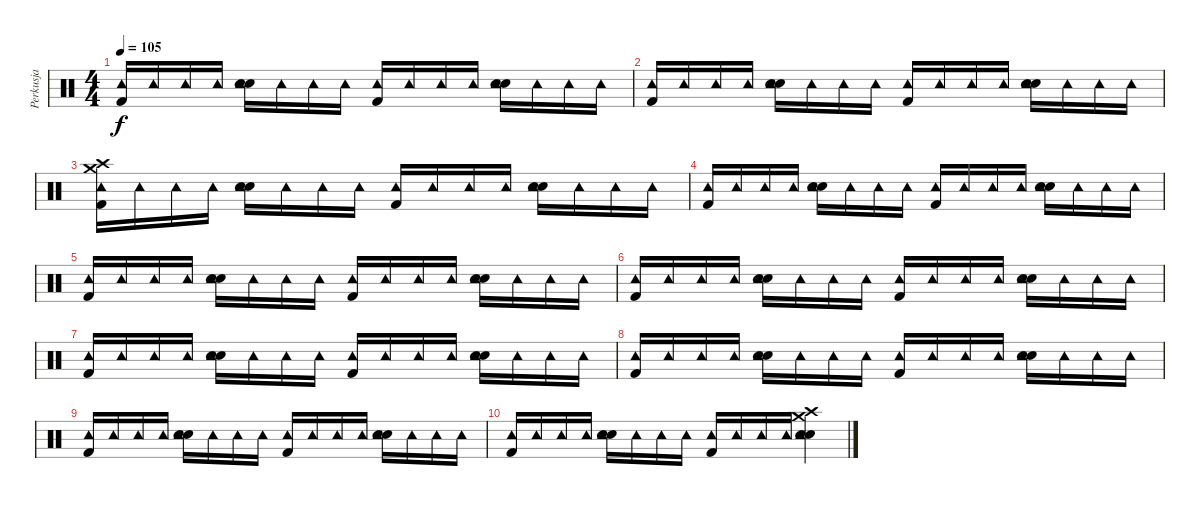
\track ("Perkusja" "Perkusja") {instrument percussion}
\staff {score}
\articulation defaults
\ts (4 4)
\tempo 105
\clef neutral
\ks c
("Kick (hit) 2" "Tambourine (hit)").16{dy f} "Tambourine (hit)".16 "Tambourine (hit)".16 "Tambourine (hit)".16 ("Electric Snare (hit)" "Snare (hit) 2" "Tambourine (hit)").16 "Tambourine (hit)".16 "Tambourine (hit)".16 "Tambourine (hit)".16 ("Kick (hit) 2" "Tambourine (hit)").16 "Tambourine (hit)".16 "Tambourine (hit)".16 "Tambourine (hit)".16 ("Electric Snare (hit)" "Snare (hit) 2" "Tambourine (hit)").16 "Tambourine (hit)".16 "Tambourine (hit)".16 "Tambourine (hit)".16 |
("Kick (hit) 2" "Tambourine (hit)").16 "Tambourine (hit)".16 "Tambourine (hit)".16 "Tambourine (hit)".16 ("Electric Snare (hit)" "Snare (hit) 2" "Tambourine (hit)").16 "Tambourine (hit)".16 "Tambourine (hit)".16 "Tambourine (hit)".16 ("Kick (hit) 2" "Tambourine (hit)").16 "Tambourine (hit)".16 "Tambourine (hit)".16 "Tambourine (hit)".16 ("Electric Snare (hit)" "Snare (hit) 2" "Tambourine (hit)").16 "Tambourine (hit)".16 "Tambourine (hit)".16 "Tambourine (hit)".16 |
("Crash medium (hit)" "Crash high (hit)" "Kick (hit) 2" "Tambourine (hit)").16 "Tambourine (hit)".16 "Tambourine (hit)".16 "Tambourine (hit)".16 ("Electric Snare (hit)" "Snare (hit) 2" "Tambourine (hit)").16 "Tambourine (hit)".16 "Tambourine (hit)".16 "Tambourine (hit)".16 ("Kick (hit) 2" "Tambourine (hit)").16 "Tambourine (hit)".16 "Tambourine (hit)".16 "Tambourine (hit)".16 ("Electric Snare (hit)" "Snare (hit) 2" "Tambourine (hit)").16 "Tambourine (hit)".16 "Tambourine (hit)".16 "Tambourine (hit)".16 |
("Kick (hit) 2" "Tambourine (hit)").16 "Tambourine (hit)".16 "Tambourine (hit)".16 "Tambourine (hit)".16 ("Electric Snare (hit)" "Snare (hit) 2" "Tambourine (hit)").16 "Tambourine (hit)".16 "Tambourine (hit)".16 "Tambourine (hit)".16 ("Kick (hit) 2" "Tambourine (hit)").16 "Tambourine (hit)".16 "Tambourine (hit)".16 "Tambourine (hit)".16 ("Electric Snare (hit)" "Snare (hit) 2" "Tambourine (hit)").16 "Tambourine (hit)".16 "Tambourine (hit)".16 "Tambourine (hit)".16 |
("Kick (hit) 2" "Tambourine (hit)").16 "Tambourine (hit)".16 "Tambourine (hit)".16 "Tambourine (hit)".16 ("Electric Snare (hit)" "Snare (hit) 2" "Tambourine (hit)").16 "Tambourine (hit)".16 "Tambourine (hit)".16 "Tambourine (hit)".16 ("Kick (hit) 2" "Tambourine (hit)").16 "Tambourine (hit)".16 "Tambourine (hit)".16 "Tambourine (hit)".16 ("Electric Snare (hit)" "Snare (hit) 2" "Tambourine (hit)").16 "Tambourine (hit)".16 "Tambourine (hit)".16 "Tambourine (hit)".16 |
("Kick (hit) 2" "Tambourine (hit)").16 "Tambourine (hit)".16 "Tambourine (hit)".16 "Tambourine (hit)".16 ("Electric Snare (hit)" "Snare (hit) 2" "Tambourine (hit)").16 "Tambourine (hit)".16 "Tambourine (hit)".16 "Tambourine (hit)".16 ("Kick (hit) 2" "Tambourine (hit)").16 "Tambourine (hit)".16 "Tambourine (hit)".16 "Tambourine (hit)".16 ("Electric Snare (hit)" "Snare (hit) 2" "Tambourine (hit)").16 "Tambourine (hit)".16 "Tambourine (hit)".16 "Tambourine (hit)".16 |
("Kick (hit) 2" "Tambourine (hit)").16 "Tambourine (hit)".16 "Tambourine (hit)".16 "Tambourine (hit)".16 ("Electric Snare (hit)" "Snare (hit) 2" "Tambourine (hit)").16 "Tambourine (hit)".16 "Tambourine (hit)".16 "Tambourine (hit)".16 ("Kick (hit) 2" "Tambourine (hit)").16 "Tambourine (hit)".16 "Tambourine (hit)".16 "Tambourine (hit)".16 ("Electric Snare (hit)" "Snare (hit) 2" "Tambourine (hit)").16 "Tambourine (hit)".16 "Tambourine (hit)".16 "Tambourine (hit)".16 |
("Kick (hit) 2" "Tambourine (hit)").16 "Tambourine (hit)".16 "Tambourine (hit)".16 "Tambourine (hit)".16 ("Electric Snare (hit)" "Snare (hit) 2" "Tambourine (hit)").16 "Tambourine (hit)".16 "Tambourine (hit)".16 "Tambourine (hit)".16 ("Kick (hit) 2" "Tambourine (hit)").16 "Tambourine (hit)".16 "Tambourine (hit)".16 "Tambourine (hit)".16 ("Electric Snare (hit)" "Snare (hit) 2" "Tambourine (hit)").16 "Tambourine (hit)".16 "Tambourine (hit)".16 "Tambourine (hit)".16 |
("Kick (hit) 2" "Tambourine (hit)").16 "Tambourine (hit)".16 "Tambourine (hit)".16 "Tambourine (hit)".16 ("Electric Snare (hit)" "Snare (hit) 2" "Tambourine (hit)").16 "Tambourine (hit)".16 "Tambourine (hit)".16 "Tambourine (hit)".16 ("Kick (hit) 2" "Tambourine (hit)").16 "Tambourine (hit)".16 "Tambourine (hit)".16 "Tambourine (hit)".16 ("Electric Snare (hit)" "Snare (hit) 2" "Tambourine (hit)").16 "Tambourine (hit)".16 "Tambourine (hit)".16 "Tambourine (hit)".16 |
("Kick (hit) 2" "Tambourine (hit)").16 "Tambourine (hit)".16 "Tambourine (hit)".16 "Tambourine (hit)".16 ("Electric Snare (hit)" "Snare (hit) 2" "Tambourine (hit)").16 "Tambourine (hit)".16 "Tambourine (hit)".16 "Tambourine (hit)".16 ("Kick (hit) 2" "Tambourine (hit)").16 "Tambourine (hit)".16 "Tambourine (hit)".16 "Tambourine (hit)".16 ("Electric Snare (hit)" "Snare (hit) 2" "Crash medium (hit)" "Crash high (hit)" "Tambourine (hit)").4
